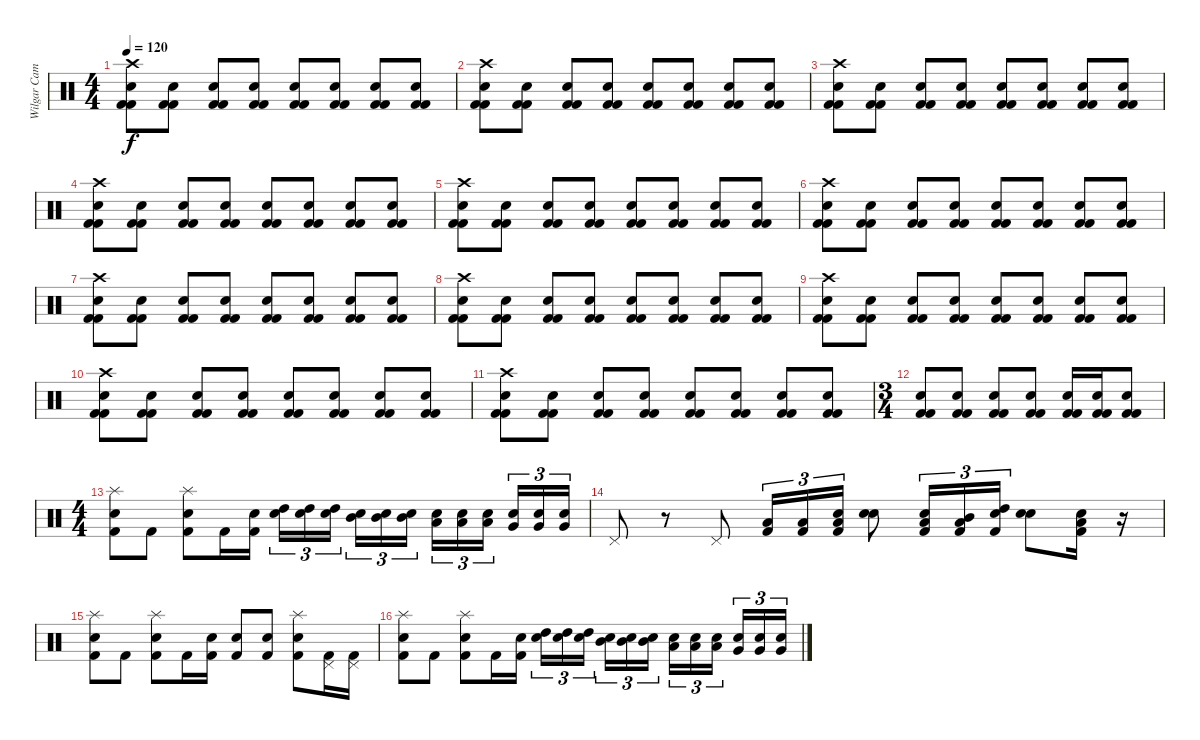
\track ("Wilgar Campbell" "Wilgar Cam") {instrument percussion}
\staff {score}
\articulation defaults
\ts (4 4)
\tempo 120
\clef neutral
\ks c
("Crash high (hit)" "Snare (hit) 2" "Kick (hit) 2" "Kick (hit) 2").8{dy f} ("Snare (hit) 2" "Kick (hit) 2" "Kick (hit) 2").8 ("Snare (hit) 2" "Kick (hit) 2" "Kick (hit) 2").8 ("Snare (hit) 2" "Kick (hit) 2" "Kick (hit) 2").8 ("Snare (hit) 2" "Kick (hit) 2" "Kick (hit) 2").8 ("Snare (hit) 2" "Kick (hit) 2" "Kick (hit) 2").8 ("Snare (hit) 2" "Kick (hit) 2" "Kick (hit) 2").8 ("Snare (hit) 2" "Kick (hit) 2" "Kick (hit) 2").8 |
("Crash high (hit)" "Snare (hit) 2" "Kick (hit) 2" "Kick (hit) 2").8 ("Snare (hit) 2" "Kick (hit) 2" "Kick (hit) 2").8 ("Snare (hit) 2" "Kick (hit) 2" "Kick (hit) 2").8 ("Snare (hit) 2" "Kick (hit) 2" "Kick (hit) 2").8 ("Snare (hit) 2" "Kick (hit) 2" "Kick (hit) 2").8 ("Snare (hit) 2" "Kick (hit) 2" "Kick (hit) 2").8 ("Snare (hit) 2" "Kick (hit) 2" "Kick (hit) 2").8 ("Snare (hit) 2" "Kick (hit) 2" "Kick (hit) 2").8 |
("Crash high (hit)" "Snare (hit) 2" "Kick (hit) 2" "Kick (hit) 2").8 ("Snare (hit) 2" "Kick (hit) 2" "Kick (hit) 2").8 ("Snare (hit) 2" "Kick (hit) 2" "Kick (hit) 2").8 ("Snare (hit) 2" "Kick (hit) 2" "Kick (hit) 2").8 ("Snare (hit) 2" "Kick (hit) 2" "Kick (hit) 2").8 ("Snare (hit) 2" "Kick (hit) 2" "Kick (hit) 2").8 ("Snare (hit) 2" "Kick (hit) 2" "Kick (hit) 2").8 ("Snare (hit) 2" "Kick (hit) 2" "Kick (hit) 2").8 |
("Crash high (hit)" "Snare (hit) 2" "Kick (hit) 2" "Kick (hit) 2").8 ("Snare (hit) 2" "Kick (hit) 2" "Kick (hit) 2").8 ("Snare (hit) 2" "Kick (hit) 2" "Kick (hit) 2").8 ("Snare (hit) 2" "Kick (hit) 2" "Kick (hit) 2").8 ("Snare (hit) 2" "Kick (hit) 2" "Kick (hit) 2").8 ("Snare (hit) 2" "Kick (hit) 2" "Kick (hit) 2").8 ("Snare (hit) 2" "Kick (hit) 2" "Kick (hit) 2").8 ("Snare (hit) 2" "Kick (hit) 2" "Kick (hit) 2").8 |
("Crash high (hit)" "Snare (hit) 2" "Kick (hit) 2" "Kick (hit) 2").8 ("Snare (hit) 2" "Kick (hit) 2" "Kick (hit) 2").8 ("Snare (hit) 2" "Kick (hit) 2" "Kick (hit) 2").8 ("Snare (hit) 2" "Kick (hit) 2" "Kick (hit) 2").8 ("Snare (hit) 2" "Kick (hit) 2" "Kick (hit) 2").8 ("Snare (hit) 2" "Kick (hit) 2" "Kick (hit) 2").8 ("Snare (hit) 2" "Kick (hit) 2" "Kick (hit) 2").8 ("Snare (hit) 2" "Kick (hit) 2" "Kick (hit) 2").8 |
("Crash high (hit)" "Snare (hit) 2" "Kick (hit) 2" "Kick (hit) 2").8 ("Snare (hit) 2" "Kick (hit) 2" "Kick (hit) 2").8 ("Snare (hit) 2" "Kick (hit) 2" "Kick (hit) 2").8 ("Snare (hit) 2" "Kick (hit) 2" "Kick (hit) 2").8 ("Snare (hit) 2" "Kick (hit) 2" "Kick (hit) 2").8 ("Snare (hit) 2" "Kick (hit) 2" "Kick (hit) 2").8 ("Snare (hit) 2" "Kick (hit) 2" "Kick (hit) 2").8 ("Snare (hit) 2" "Kick (hit) 2" "Kick (hit) 2").8 |
("Crash high (hit)" "Snare (hit) 2" "Kick (hit) 2" "Kick (hit) 2").8 ("Snare (hit) 2" "Kick (hit) 2" "Kick (hit) 2").8 ("Snare (hit) 2" "Kick (hit) 2" "Kick (hit) 2").8 ("Snare (hit) 2" "Kick (hit) 2" "Kick (hit) 2").8 ("Snare (hit) 2" "Kick (hit) 2" "Kick (hit) 2").8 ("Snare (hit) 2" "Kick (hit) 2" "Kick (hit) 2").8 ("Snare (hit) 2" "Kick (hit) 2" "Kick (hit) 2").8 ("Snare (hit) 2" "Kick (hit) 2" "Kick (hit) 2").8 |
("Crash high (hit)" "Snare (hit) 2" "Kick (hit) 2" "Kick (hit) 2").8 ("Snare (hit) 2" "Kick (hit) 2" "Kick (hit) 2").8 ("Snare (hit) 2" "Kick (hit) 2" "Kick (hit) 2").8 ("Snare (hit) 2" "Kick (hit) 2" "Kick (hit) 2").8 ("Snare (hit) 2" "Kick (hit) 2" "Kick (hit) 2").8 ("Snare (hit) 2" "Kick (hit) 2" "Kick (hit) 2").8 ("Snare (hit) 2" "Kick (hit) 2" "Kick (hit) 2").8 ("Snare (hit) 2" "Kick (hit) 2" "Kick (hit) 2").8 |
("Crash high (hit)" "Snare (hit) 2" "Kick (hit) 2" "Kick (hit) 2").8 ("Snare (hit) 2" "Kick (hit) 2" "Kick (hit) 2").8 ("Snare (hit) 2" "Kick (hit) 2" "Kick (hit) 2").8 ("Snare (hit) 2" "Kick (hit) 2" "Kick (hit) 2").8 ("Snare (hit) 2" "Kick (hit) 2" "Kick (hit) 2").8 ("Snare (hit) 2" "Kick (hit) 2" "Kick (hit) 2").8 ("Snare (hit) 2" "Kick (hit) 2" "Kick (hit) 2").8 ("Snare (hit) 2" "Kick (hit) 2" "Kick (hit) 2").8 |
("Crash high (hit)" "Snare (hit) 2" "Kick (hit) 2" "Kick (hit) 2").8 ("Snare (hit) 2" "Kick (hit) 2" "Kick (hit) 2").8 ("Snare (hit) 2" "Kick (hit) 2" "Kick (hit) 2").8 ("Snare (hit) 2" "Kick (hit) 2" "Kick (hit) 2").8 ("Snare (hit) 2" "Kick (hit) 2" "Kick (hit) 2").8 ("Snare (hit) 2" "Kick (hit) 2" "Kick (hit) 2").8 ("Snare (hit) 2" "Kick (hit) 2" "Kick (hit) 2").8 ("Snare (hit) 2" "Kick (hit) 2" "Kick (hit) 2").8 |
("Crash high (hit)" "Snare (hit) 2" "Kick (hit) 2" "Kick (hit) 2").8 ("Snare (hit) 2" "Kick (hit) 2" "Kick (hit) 2").8 ("Snare (hit) 2" "Kick (hit) 2" "Kick (hit) 2").8 ("Snare (hit) 2" "Kick (hit) 2" "Kick (hit) 2").8 ("Snare (hit) 2" "Kick (hit) 2" "Kick (hit) 2").8 ("Snare (hit) 2" "Kick (hit) 2" "Kick (hit) 2").8 ("Snare (hit) 2" "Kick (hit) 2" "Kick (hit) 2").8 ("Snare (hit) 2" "Kick (hit) 2" "Kick (hit) 2").8 |
\ts (3 4)
("Snare (hit) 2" "Kick (hit) 2" "Kick (hit) 2").8 ("Snare (hit) 2" "Kick (hit) 2" "Kick (hit) 2").8 ("Snare (hit) 2" "Kick (hit) 2" "Kick (hit) 2").8 ("Snare (hit) 2" "Kick (hit) 2" "Kick (hit) 2").8 ("Snare (hit) 2" "Kick (hit) 2" "Kick (hit) 2").16 ("Snare (hit) 2" "Kick (hit) 2" "Kick (hit) 2").16 ("Electric Snare (hit)" "Kick (hit) 2" "Kick (hit) 2").8 |
\ts (4 4)
("Splash (hit)" "Snare (hit) 2" "Kick (hit) 2").8 "Kick (hit) 2".8 ("Splash (hit)" "Electric Snare (hit)" "Kick (hit) 2").8 "Kick (hit) 2".16 ("Snare (hit) 2" "Kick (hit) 2").16 ("High Tom (hit)" "Electric Snare (hit)").16{tu (3 2)} ("High Tom (hit)" "Electric Snare (hit)").16{tu (3 2)} ("High Tom (hit)" "Electric Snare (hit)").16{tu (3 2)} ("Mid Tom (hit)" "Electric Snare (hit)").16{tu (3 2)} ("Mid Tom (hit)" "Electric Snare (hit)").16{tu (3 2)} ("Mid Tom (hit)" "Electric Snare (hit)").16{tu (3 2)} ("Low Tom (hit)" "Snare (hit) 2").16{tu (3 2)} ("Low Tom (hit)" "Snare (hit) 2").16{tu (3 2)} ("Low Tom (hit)" "Snare (hit) 2").16{tu (3 2)} ("Very Low Tom (hit)" "Snare (hit) 2").16{tu (3 2)} ("Very Low Tom (hit)" "Snare (hit) 2").16{tu (3 2)} ("Very Low Tom (hit)" "Snare (hit) 2").16{tu (3 2)} |
"Pedal Hi-Hat (hit)".8 r.8 "Pedal Hi-Hat (hit)".8 ("Low Tom (hit)" "Kick (hit) 2").16{tu (3 2)} ("Low Tom (hit)" "Kick (hit) 2").16{tu (3 2)} ("Snare (hit) 2" "Low Tom (hit)" "Kick (hit) 2").16{tu (3 2)} ("Snare (hit) 2" "Snare (hit) 2").8 ("Snare (hit) 2" "Low Tom (hit)" "Kick (hit) 2").16{tu (3 2)} ("Mid Tom (hit)" "Low Tom (hit)" "Kick (hit) 2").16{tu (3 2)} ("Snare (hit) 2" "High Tom (hit)" "Kick (hit) 2").16{tu (3 2)} ("Snare (hit) 2" "Snare (hit) 2").8 ("Snare (hit) 2" "Low Tom (hit)" "Kick (hit) 2").16 r.16 |
("Splash (hit)" "Snare (hit) 2" "Kick (hit) 2").8 "Kick (hit) 2".8 ("Splash (hit)" "Electric Snare (hit)" "Kick (hit) 2").8 "Kick (hit) 2".16 ("Snare (hit) 2" "Kick (hit) 2").16 ("Snare (hit) 2" "Kick (hit) 2").8 ("Electric Snare (hit)" "Kick (hit) 2").8 ("Splash (hit)" "Electric Snare (hit)" "Kick (hit) 2").8 ("Pedal Hi-Hat (hit)" "Kick (hit) 2").16 ("Pedal Hi-Hat (hit)" "Kick (hit) 2").16 |
("Splash (hit)" "Snare (hit) 2" "Kick (hit) 2").8 "Kick (hit) 2".8 ("Splash (hit)" "Electric Snare (hit)" "Kick (hit) 2").8 "Kick (hit) 2".16 ("Snare (hit) 2" "Kick (hit) 2").16 ("High Tom (hit)" "Electric Snare (hit)").16{tu (3 2)} ("High Tom (hit)" "Electric Snare (hit)").16{tu (3 2)} ("High Tom (hit)" "Electric Snare (hit)").16{tu (3 2)} ("Mid Tom (hit)" "Electric Snare (hit)").16{tu (3 2)} ("Mid Tom (hit)" "Electric Snare (hit)").16{tu (3 2)} ("Mid Tom (hit)" "Electric Snare (hit)").16{tu (3 2)} ("Low Tom (hit)" "Snare (hit) 2").16{tu (3 2)} ("Low Tom (hit)" "Snare (hit) 2").16{tu (3 2)} ("Low Tom (hit)" "Snare (hit) 2").16{tu (3 2)} ("Very Low Tom (hit)" "Snare (hit) 2").16{tu (3 2)} ("Very Low Tom (hit)" "Snare (hit) 2").16{tu (3 2)} ("Very Low Tom (hit)" "Snare (hit) 2").16{tu (3 2)}
